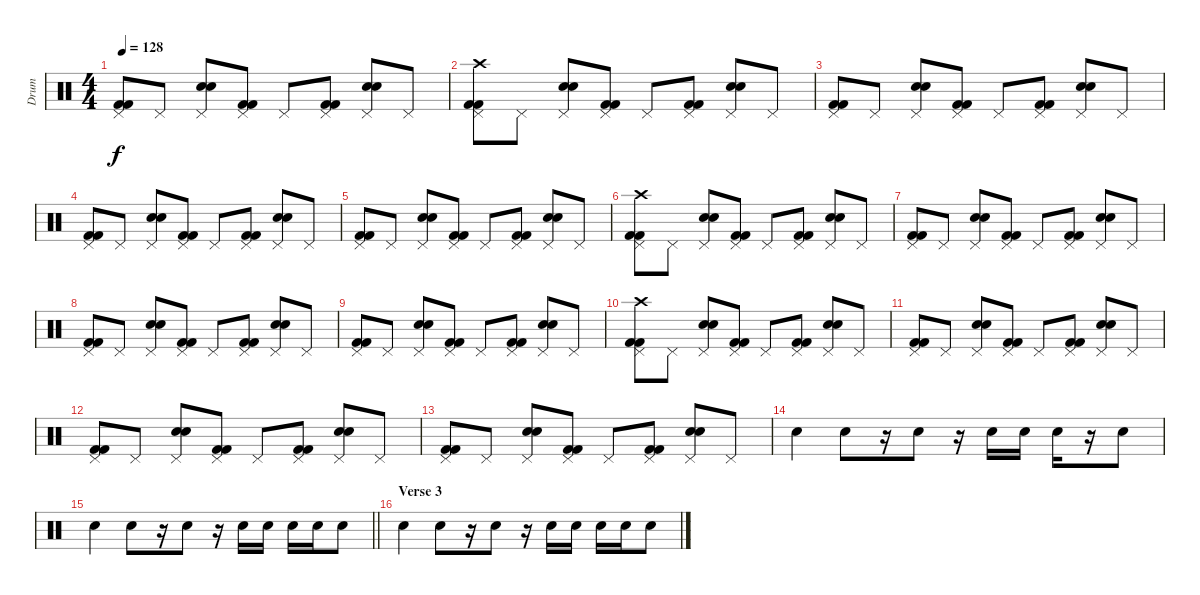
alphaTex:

\track ("Drum" "Drum") {instrument percussion}
\staff {score}
\articulation defaults
\ts (4 4)
\tempo 128
\clef neutral
\ks c
("Kick (hit) 2" "Kick (hit) 2" "Pedal Hi-Hat (hit)").8{dy f} "Pedal Hi-Hat (hit)".8 ("Snare (hit) 2" "Snare (hit) 2" "Pedal Hi-Hat (hit)").8 ("Kick (hit) 2" "Kick (hit) 2" "Pedal Hi-Hat (hit)").8 "Pedal Hi-Hat (hit)".8 ("Kick (hit) 2" "Kick (hit) 2" "Pedal Hi-Hat (hit)").8 ("Snare (hit) 2" "Snare (hit) 2" "Pedal Hi-Hat (hit)").8 "Pedal Hi-Hat (hit)".8 |
("Kick (hit) 2" "Kick (hit) 2" "Pedal Hi-Hat (hit)" "Crash high (hit)").8 "Pedal Hi-Hat (hit)".8 ("Snare (hit) 2" "Snare (hit) 2" "Pedal Hi-Hat (hit)").8 ("Kick (hit) 2" "Kick (hit) 2" "Pedal Hi-Hat (hit)").8 "Pedal Hi-Hat (hit)".8 ("Kick (hit) 2" "Kick (hit) 2" "Pedal Hi-Hat (hit)").8 ("Snare (hit) 2" "Snare (hit) 2" "Pedal Hi-Hat (hit)").8 "Pedal Hi-Hat (hit)".8 |
("Kick (hit) 2" "Kick (hit) 2" "Pedal Hi-Hat (hit)").8 "Pedal Hi-Hat (hit)".8 ("Snare (hit) 2" "Snare (hit) 2" "Pedal Hi-Hat (hit)").8 ("Kick (hit) 2" "Kick (hit) 2" "Pedal Hi-Hat (hit)").8 "Pedal Hi-Hat (hit)".8 ("Kick (hit) 2" "Kick (hit) 2" "Pedal Hi-Hat (hit)").8 ("Snare (hit) 2" "Snare (hit) 2" "Pedal Hi-Hat (hit)").8 "Pedal Hi-Hat (hit)".8 |
("Kick (hit) 2" "Kick (hit) 2" "Pedal Hi-Hat (hit)").8 "Pedal Hi-Hat (hit)".8 ("Snare (hit) 2" "Snare (hit) 2" "Pedal Hi-Hat (hit)").8 ("Kick (hit) 2" "Kick (hit) 2" "Pedal Hi-Hat (hit)").8 "Pedal Hi-Hat (hit)".8 ("Kick (hit) 2" "Kick (hit) 2" "Pedal Hi-Hat (hit)").8 ("Snare (hit) 2" "Snare (hit) 2" "Pedal Hi-Hat (hit)").8 "Pedal Hi-Hat (hit)".8 |
("Kick (hit) 2" "Kick (hit) 2" "Pedal Hi-Hat (hit)").8 "Pedal Hi-Hat (hit)".8 ("Snare (hit) 2" "Snare (hit) 2" "Pedal Hi-Hat (hit)").8 ("Kick (hit) 2" "Kick (hit) 2" "Pedal Hi-Hat (hit)").8 "Pedal Hi-Hat (hit)".8 ("Kick (hit) 2" "Kick (hit) 2" "Pedal Hi-Hat (hit)").8 ("Snare (hit) 2" "Snare (hit) 2" "Pedal Hi-Hat (hit)").8 "Pedal Hi-Hat (hit)".8 |
("Kick (hit) 2" "Kick (hit) 2" "Pedal Hi-Hat (hit)" "Crash high (hit)").8 "Pedal Hi-Hat (hit)".8 ("Snare (hit) 2" "Snare (hit) 2" "Pedal Hi-Hat (hit)").8 ("Kick (hit) 2" "Kick (hit) 2" "Pedal Hi-Hat (hit)").8 "Pedal Hi-Hat (hit)".8 ("Kick (hit) 2" "Kick (hit) 2" "Pedal Hi-Hat (hit)").8 ("Snare (hit) 2" "Snare (hit) 2" "Pedal Hi-Hat (hit)").8 "Pedal Hi-Hat (hit)".8 |
("Kick (hit) 2" "Kick (hit) 2" "Pedal Hi-Hat (hit)").8 "Pedal Hi-Hat (hit)".8 ("Snare (hit) 2" "Snare (hit) 2" "Pedal Hi-Hat (hit)").8 ("Kick (hit) 2" "Kick (hit) 2" "Pedal Hi-Hat (hit)").8 "Pedal Hi-Hat (hit)".8 ("Kick (hit) 2" "Kick (hit) 2" "Pedal Hi-Hat (hit)").8 ("Snare (hit) 2" "Snare (hit) 2" "Pedal Hi-Hat (hit)").8 "Pedal Hi-Hat (hit)".8 |
("Kick (hit) 2" "Kick (hit) 2" "Pedal Hi-Hat (hit)").8 "Pedal Hi-Hat (hit)".8 ("Snare (hit) 2" "Snare (hit) 2" "Pedal Hi-Hat (hit)").8 ("Kick (hit) 2" "Kick (hit) 2" "Pedal Hi-Hat (hit)").8 "Pedal Hi-Hat (hit)".8 ("Kick (hit) 2" "Kick (hit) 2" "Pedal Hi-Hat (hit)").8 ("Snare (hit) 2" "Snare (hit) 2" "Pedal Hi-Hat (hit)").8 "Pedal Hi-Hat (hit)".8 |
("Kick (hit) 2" "Kick (hit) 2" "Pedal Hi-Hat (hit)").8 "Pedal Hi-Hat (hit)".8 ("Snare (hit) 2" "Snare (hit) 2" "Pedal Hi-Hat (hit)").8 ("Kick (hit) 2" "Kick (hit) 2" "Pedal Hi-Hat (hit)").8 "Pedal Hi-Hat (hit)".8 ("Kick (hit) 2" "Kick (hit) 2" "Pedal Hi-Hat (hit)").8 ("Snare (hit) 2" "Snare (hit) 2" "Pedal Hi-Hat (hit)").8 "Pedal Hi-Hat (hit)".8 |
("Kick (hit) 2" "Kick (hit) 2" "Pedal Hi-Hat (hit)" "Crash high (hit)").8 "Pedal Hi-Hat (hit)".8 ("Snare (hit) 2" "Snare (hit) 2" "Pedal Hi-Hat (hit)").8 ("Kick (hit) 2" "Kick (hit) 2" "Pedal Hi-Hat (hit)").8 "Pedal Hi-Hat (hit)".8 ("Kick (hit) 2" "Kick (hit) 2" "Pedal Hi-Hat (hit)").8 ("Snare (hit) 2" "Snare (hit) 2" "Pedal Hi-Hat (hit)").8 "Pedal Hi-Hat (hit)".8 |
("Kick (hit) 2" "Kick (hit) 2" "Pedal Hi-Hat (hit)").8 "Pedal Hi-Hat (hit)".8 ("Snare (hit) 2" "Snare (hit) 2" "Pedal Hi-Hat (hit)").8 ("Kick (hit) 2" "Kick (hit) 2" "Pedal Hi-Hat (hit)").8 "Pedal Hi-Hat (hit)".8 ("Kick (hit) 2" "Kick (hit) 2" "Pedal Hi-Hat (hit)").8 ("Snare (hit) 2" "Snare (hit) 2" "Pedal Hi-Hat (hit)").8 "Pedal Hi-Hat (hit)".8 |
("Kick (hit) 2" "Kick (hit) 2" "Pedal Hi-Hat (hit)").8 "Pedal Hi-Hat (hit)".8 ("Snare (hit) 2" "Snare (hit) 2" "Pedal Hi-Hat (hit)").8 ("Kick (hit) 2" "Kick (hit) 2" "Pedal Hi-Hat (hit)").8 "Pedal Hi-Hat (hit)".8 ("Kick (hit) 2" "Kick (hit) 2" "Pedal Hi-Hat (hit)").8 ("Snare (hit) 2" "Snare (hit) 2" "Pedal Hi-Hat (hit)").8 "Pedal Hi-Hat (hit)".8 |
("Kick (hit) 2" "Kick (hit) 2" "Pedal Hi-Hat (hit)").8 "Pedal Hi-Hat (hit)".8 ("Snare (hit) 2" "Snare (hit) 2" "Pedal Hi-Hat (hit)").8 ("Kick (hit) 2" "Kick (hit) 2" "Pedal Hi-Hat (hit)").8 "Pedal Hi-Hat (hit)".8 ("Kick (hit) 2" "Kick (hit) 2" "Pedal Hi-Hat (hit)").8 ("Snare (hit) 2" "Snare (hit) 2" "Pedal Hi-Hat (hit)").8 "Pedal Hi-Hat (hit)".8 |
"Hand Clap (hit)".4 "Hand Clap (hit)".8 r.16 "Hand Clap (hit)".8 r.16 "Hand Clap (hit)".16 "Hand Clap (hit)".16 "Hand Clap (hit)".16 r.16 "Hand Clap (hit)".8 |
\barLineRight lightlight "Hand Clap (hit)".4 "Hand Clap (hit)".8
r.16 "Hand Clap (hit)".8 r.16 "Hand Clap (hit)".16 "Hand Clap (hit)".16 "Hand Clap (hit)".16 "Hand Clap (hit)".16 "Hand Clap (hit)".8 |
\section ("" "Verse 3")
"Hand Clap (hit)".4 "Hand Clap (hit)".8 r.16 "Hand Clap (hit)".8 r.16 "Hand Clap (hit)".16 "Hand Clap (hit)".16 "Hand Clap (hit)".16 "Hand Clap (hit)".16 "Hand Clap (hit)".8
